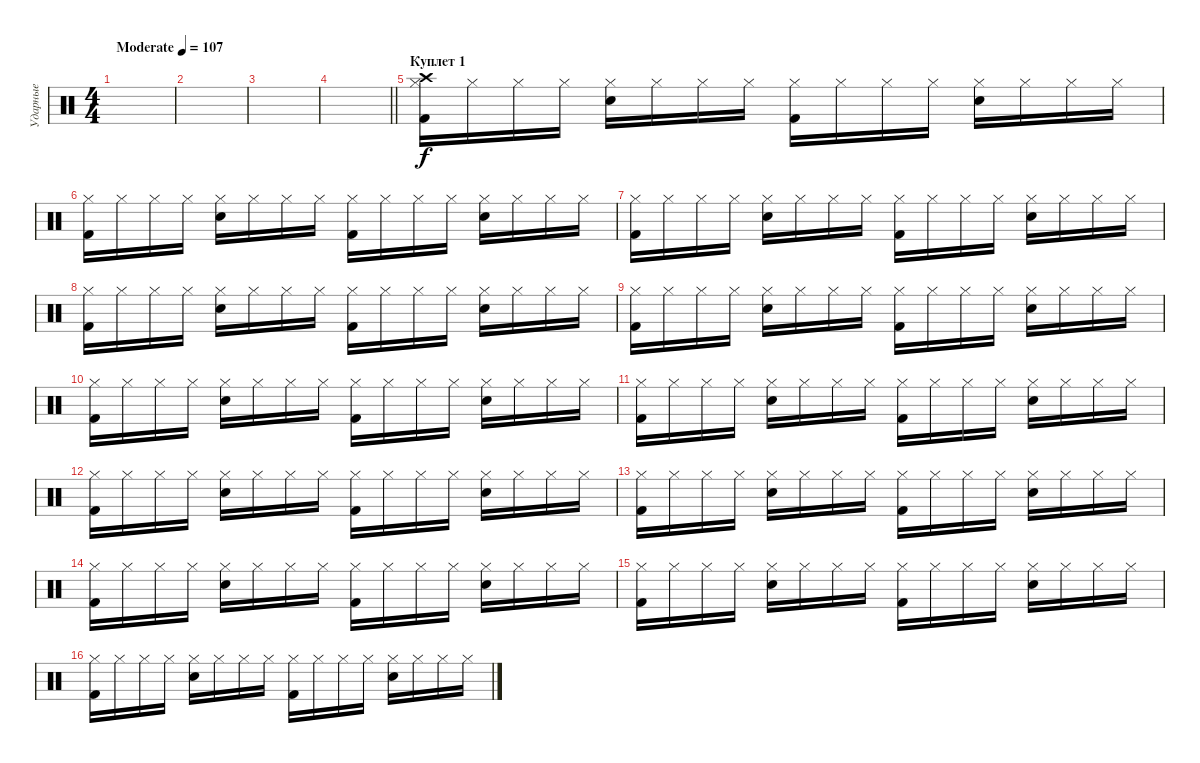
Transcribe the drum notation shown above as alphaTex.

\track ("Ударные" "Ударные") {solo instrument percussion}
\staff {score}
\articulation defaults
\ts (4 4)
\tempo (107 "Moderate")
\clef neutral
\ks c
|
|
|
\barLineRight lightlight
|
\section ("" "Куплет 1")
("Kick (hit) 2" "Hi-Hat (closed)" "Crash high (hit)").16 "Hi-Hat (closed)".16 "Hi-Hat (closed)".16 "Hi-Hat (closed)".16 ("Snare (hit) 2" "Hi-Hat (closed)").16 "Hi-Hat (closed)".16 "Hi-Hat (closed)".16 "Hi-Hat (closed)".16 ("Kick (hit) 2" "Hi-Hat (closed)").16 "Hi-Hat (closed)".16 "Hi-Hat (closed)".16 "Hi-Hat (closed)".16 ("Snare (hit) 2" "Hi-Hat (closed)").16 "Hi-Hat (closed)".16 "Hi-Hat (closed)".16 "Hi-Hat (closed)".16 |
("Kick (hit) 2" "Hi-Hat (closed)").16 "Hi-Hat (closed)".16 "Hi-Hat (closed)".16 "Hi-Hat (closed)".16 ("Snare (hit) 2" "Hi-Hat (closed)").16 "Hi-Hat (closed)".16 "Hi-Hat (closed)".16 "Hi-Hat (closed)".16 ("Kick (hit) 2" "Hi-Hat (closed)").16 "Hi-Hat (closed)".16 "Hi-Hat (closed)".16 "Hi-Hat (closed)".16 ("Snare (hit) 2" "Hi-Hat (closed)").16 "Hi-Hat (closed)".16 "Hi-Hat (closed)".16 "Hi-Hat (closed)".16 |
("Kick (hit) 2" "Hi-Hat (closed)").16 "Hi-Hat (closed)".16 "Hi-Hat (closed)".16 "Hi-Hat (closed)".16 ("Snare (hit) 2" "Hi-Hat (closed)").16 "Hi-Hat (closed)".16 "Hi-Hat (closed)".16 "Hi-Hat (closed)".16 ("Kick (hit) 2" "Hi-Hat (closed)").16 "Hi-Hat (closed)".16 "Hi-Hat (closed)".16 "Hi-Hat (closed)".16 ("Snare (hit) 2" "Hi-Hat (closed)").16 "Hi-Hat (closed)".16 "Hi-Hat (closed)".16 "Hi-Hat (closed)".16 |
("Kick (hit) 2" "Hi-Hat (closed)").16 "Hi-Hat (closed)".16 "Hi-Hat (closed)".16 "Hi-Hat (closed)".16 ("Snare (hit) 2" "Hi-Hat (closed)").16 "Hi-Hat (closed)".16 "Hi-Hat (closed)".16 "Hi-Hat (closed)".16 ("Kick (hit) 2" "Hi-Hat (closed)").16 "Hi-Hat (closed)".16 "Hi-Hat (closed)".16 "Hi-Hat (closed)".16 ("Snare (hit) 2" "Hi-Hat (closed)").16 "Hi-Hat (closed)".16 "Hi-Hat (closed)".16 "Hi-Hat (closed)".16 |
("Kick (hit) 2" "Hi-Hat (closed)").16 "Hi-Hat (closed)".16 "Hi-Hat (closed)".16 "Hi-Hat (closed)".16 ("Snare (hit) 2" "Hi-Hat (closed)").16 "Hi-Hat (closed)".16 "Hi-Hat (closed)".16 "Hi-Hat (closed)".16 ("Kick (hit) 2" "Hi-Hat (closed)").16 "Hi-Hat (closed)".16 "Hi-Hat (closed)".16 "Hi-Hat (closed)".16 ("Snare (hit) 2" "Hi-Hat (closed)").16 "Hi-Hat (closed)".16 "Hi-Hat (closed)".16 "Hi-Hat (closed)".16 |
("Kick (hit) 2" "Hi-Hat (closed)").16 "Hi-Hat (closed)".16 "Hi-Hat (closed)".16 "Hi-Hat (closed)".16 ("Snare (hit) 2" "Hi-Hat (closed)").16 "Hi-Hat (closed)".16 "Hi-Hat (closed)".16 "Hi-Hat (closed)".16 ("Kick (hit) 2" "Hi-Hat (closed)").16 "Hi-Hat (closed)".16 "Hi-Hat (closed)".16 "Hi-Hat (closed)".16 ("Snare (hit) 2" "Hi-Hat (closed)").16 "Hi-Hat (closed)".16 "Hi-Hat (closed)".16 "Hi-Hat (closed)".16 |
("Kick (hit) 2" "Hi-Hat (closed)").16 "Hi-Hat (closed)".16 "Hi-Hat (closed)".16 "Hi-Hat (closed)".16 ("Snare (hit) 2" "Hi-Hat (closed)").16 "Hi-Hat (closed)".16 "Hi-Hat (closed)".16 "Hi-Hat (closed)".16 ("Kick (hit) 2" "Hi-Hat (closed)").16 "Hi-Hat (closed)".16 "Hi-Hat (closed)".16 "Hi-Hat (closed)".16 ("Snare (hit) 2" "Hi-Hat (closed)").16 "Hi-Hat (closed)".16 "Hi-Hat (closed)".16 "Hi-Hat (closed)".16 |
("Kick (hit) 2" "Hi-Hat (closed)").16 "Hi-Hat (closed)".16 "Hi-Hat (closed)".16 "Hi-Hat (closed)".16 ("Snare (hit) 2" "Hi-Hat (closed)").16 "Hi-Hat (closed)".16 "Hi-Hat (closed)".16 "Hi-Hat (closed)".16 ("Kick (hit) 2" "Hi-Hat (closed)").16 "Hi-Hat (closed)".16 "Hi-Hat (closed)".16 "Hi-Hat (closed)".16 ("Snare (hit) 2" "Hi-Hat (closed)").16 "Hi-Hat (closed)".16 "Hi-Hat (closed)".16 "Hi-Hat (closed)".16 |
("Kick (hit) 2" "Hi-Hat (closed)").16 "Hi-Hat (closed)".16 "Hi-Hat (closed)".16 "Hi-Hat (closed)".16 ("Snare (hit) 2" "Hi-Hat (closed)").16 "Hi-Hat (closed)".16 "Hi-Hat (closed)".16 "Hi-Hat (closed)".16 ("Kick (hit) 2" "Hi-Hat (closed)").16 "Hi-Hat (closed)".16 "Hi-Hat (closed)".16 "Hi-Hat (closed)".16 ("Snare (hit) 2" "Hi-Hat (closed)").16 "Hi-Hat (closed)".16 "Hi-Hat (closed)".16 "Hi-Hat (closed)".16 |
("Kick (hit) 2" "Hi-Hat (closed)").16 "Hi-Hat (closed)".16 "Hi-Hat (closed)".16 "Hi-Hat (closed)".16 ("Snare (hit) 2" "Hi-Hat (closed)").16 "Hi-Hat (closed)".16 "Hi-Hat (closed)".16 "Hi-Hat (closed)".16 ("Kick (hit) 2" "Hi-Hat (closed)").16 "Hi-Hat (closed)".16 "Hi-Hat (closed)".16 "Hi-Hat (closed)".16 ("Snare (hit) 2" "Hi-Hat (closed)").16 "Hi-Hat (closed)".16 "Hi-Hat (closed)".16 "Hi-Hat (closed)".16 |
("Kick (hit) 2" "Hi-Hat (closed)").16 "Hi-Hat (closed)".16 "Hi-Hat (closed)".16 "Hi-Hat (closed)".16 ("Snare (hit) 2" "Hi-Hat (closed)").16 "Hi-Hat (closed)".16 "Hi-Hat (closed)".16 "Hi-Hat (closed)".16 ("Kick (hit) 2" "Hi-Hat (closed)").16 "Hi-Hat (closed)".16 "Hi-Hat (closed)".16 "Hi-Hat (closed)".16 ("Snare (hit) 2" "Hi-Hat (closed)").16 "Hi-Hat (closed)".16 "Hi-Hat (closed)".16 "Hi-Hat (closed)".16 |
("Kick (hit) 2" "Hi-Hat (closed)").16 "Hi-Hat (closed)".16 "Hi-Hat (closed)".16 "Hi-Hat (closed)".16 ("Snare (hit) 2" "Hi-Hat (closed)").16 "Hi-Hat (closed)".16 "Hi-Hat (closed)".16 "Hi-Hat (closed)".16 ("Kick (hit) 2" "Hi-Hat (closed)").16 "Hi-Hat (closed)".16 "Hi-Hat (closed)".16 "Hi-Hat (closed)".16 ("Snare (hit) 2" "Hi-Hat (closed)").16 "Hi-Hat (closed)".16 "Hi-Hat (closed)".16 "Hi-Hat (closed)".16
